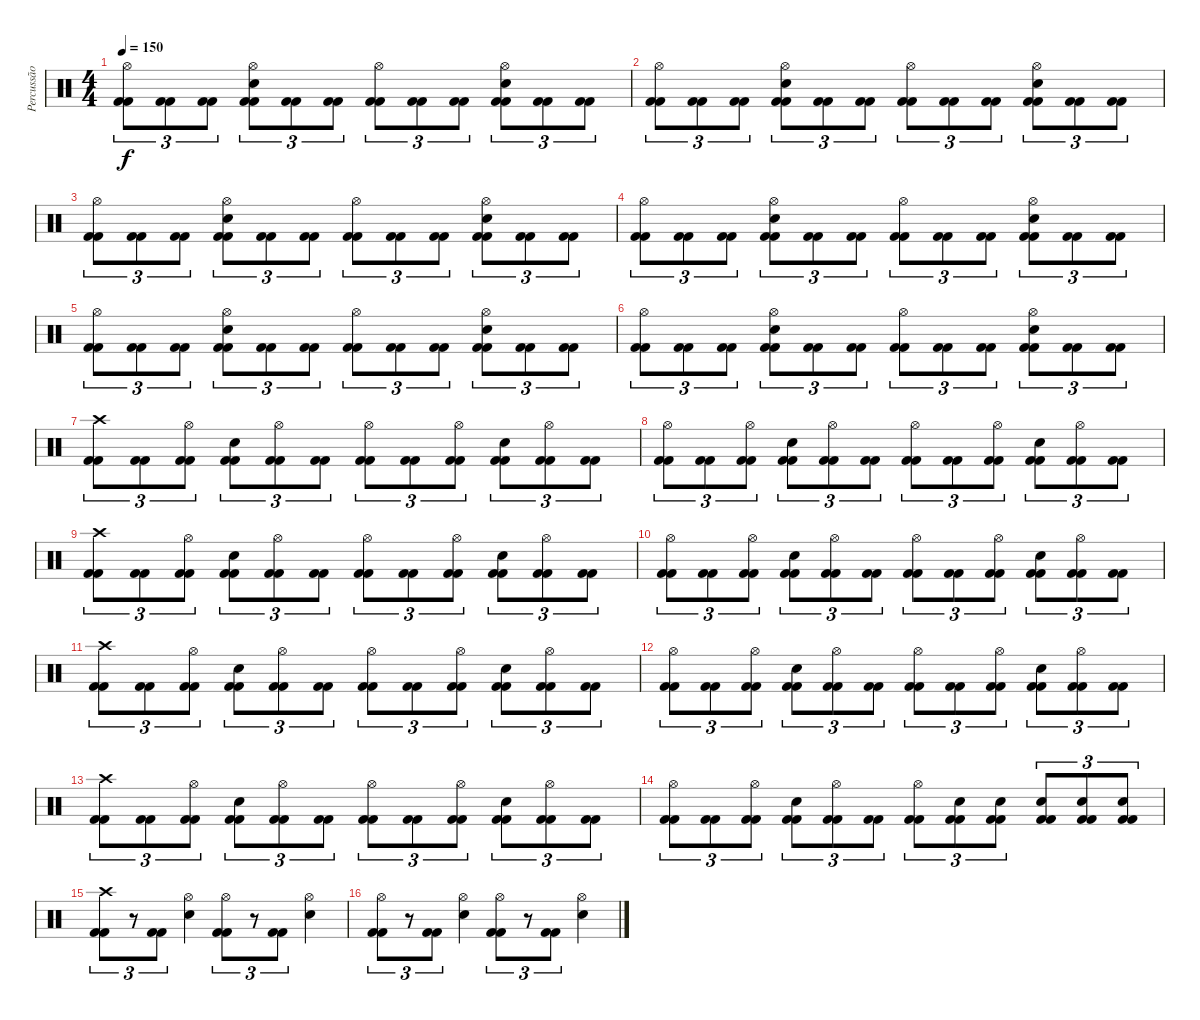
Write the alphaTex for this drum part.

\track ("Percussão" "Percussão") {instrument percussion}
\staff {score}
\articulation defaults
\ts (4 4)
\tempo 150
\clef neutral
\ks c
("Hi-Hat (open)" "Kick (hit) 2" "Kick (hit) 2").8{tu (3 2) dy f} ("Kick (hit) 2" "Kick (hit) 2").8{tu (3 2)} ("Kick (hit) 2" "Kick (hit) 2").8{tu (3 2)} ("Hi-Hat (open)" "Electric Snare (hit)" "Kick (hit) 2" "Kick (hit) 2").8{tu (3 2)} ("Kick (hit) 2" "Kick (hit) 2").8{tu (3 2)} ("Kick (hit) 2" "Kick (hit) 2").8{tu (3 2)} ("Hi-Hat (open)" "Kick (hit) 2" "Kick (hit) 2").8{tu (3 2)} ("Kick (hit) 2" "Kick (hit) 2").8{tu (3 2)} ("Kick (hit) 2" "Kick (hit) 2").8{tu (3 2)} ("Hi-Hat (open)" "Electric Snare (hit)" "Kick (hit) 2" "Kick (hit) 2").8{tu (3 2)} ("Kick (hit) 2" "Kick (hit) 2").8{tu (3 2)} ("Kick (hit) 2" "Kick (hit) 2").8{tu (3 2)} |
("Hi-Hat (open)" "Kick (hit) 2" "Kick (hit) 2").8{tu (3 2)} ("Kick (hit) 2" "Kick (hit) 2").8{tu (3 2)} ("Kick (hit) 2" "Kick (hit) 2").8{tu (3 2)} ("Hi-Hat (open)" "Electric Snare (hit)" "Kick (hit) 2" "Kick (hit) 2").8{tu (3 2)} ("Kick (hit) 2" "Kick (hit) 2").8{tu (3 2)} ("Kick (hit) 2" "Kick (hit) 2").8{tu (3 2)} ("Hi-Hat (open)" "Kick (hit) 2" "Kick (hit) 2").8{tu (3 2)} ("Kick (hit) 2" "Kick (hit) 2").8{tu (3 2)} ("Kick (hit) 2" "Kick (hit) 2").8{tu (3 2)} ("Hi-Hat (open)" "Electric Snare (hit)" "Kick (hit) 2" "Kick (hit) 2").8{tu (3 2)} ("Kick (hit) 2" "Kick (hit) 2").8{tu (3 2)} ("Kick (hit) 2" "Kick (hit) 2").8{tu (3 2)} |
("Hi-Hat (open)" "Kick (hit) 2" "Kick (hit) 2").8{tu (3 2)} ("Kick (hit) 2" "Kick (hit) 2").8{tu (3 2)} ("Kick (hit) 2" "Kick (hit) 2").8{tu (3 2)} ("Hi-Hat (open)" "Electric Snare (hit)" "Kick (hit) 2" "Kick (hit) 2").8{tu (3 2)} ("Kick (hit) 2" "Kick (hit) 2").8{tu (3 2)} ("Kick (hit) 2" "Kick (hit) 2").8{tu (3 2)} ("Hi-Hat (open)" "Kick (hit) 2" "Kick (hit) 2").8{tu (3 2)} ("Kick (hit) 2" "Kick (hit) 2").8{tu (3 2)} ("Kick (hit) 2" "Kick (hit) 2").8{tu (3 2)} ("Hi-Hat (open)" "Electric Snare (hit)" "Kick (hit) 2" "Kick (hit) 2").8{tu (3 2)} ("Kick (hit) 2" "Kick (hit) 2").8{tu (3 2)} ("Kick (hit) 2" "Kick (hit) 2").8{tu (3 2)} |
("Hi-Hat (open)" "Kick (hit) 2" "Kick (hit) 2").8{tu (3 2)} ("Kick (hit) 2" "Kick (hit) 2").8{tu (3 2)} ("Kick (hit) 2" "Kick (hit) 2").8{tu (3 2)} ("Hi-Hat (open)" "Electric Snare (hit)" "Kick (hit) 2" "Kick (hit) 2").8{tu (3 2)} ("Kick (hit) 2" "Kick (hit) 2").8{tu (3 2)} ("Kick (hit) 2" "Kick (hit) 2").8{tu (3 2)} ("Hi-Hat (open)" "Kick (hit) 2" "Kick (hit) 2").8{tu (3 2)} ("Kick (hit) 2" "Kick (hit) 2").8{tu (3 2)} ("Kick (hit) 2" "Kick (hit) 2").8{tu (3 2)} ("Hi-Hat (open)" "Electric Snare (hit)" "Kick (hit) 2" "Kick (hit) 2").8{tu (3 2)} ("Kick (hit) 2" "Kick (hit) 2").8{tu (3 2)} ("Kick (hit) 2" "Kick (hit) 2").8{tu (3 2)} |
("Hi-Hat (open)" "Kick (hit) 2" "Kick (hit) 2").8{tu (3 2)} ("Kick (hit) 2" "Kick (hit) 2").8{tu (3 2)} ("Kick (hit) 2" "Kick (hit) 2").8{tu (3 2)} ("Hi-Hat (open)" "Electric Snare (hit)" "Kick (hit) 2" "Kick (hit) 2").8{tu (3 2)} ("Kick (hit) 2" "Kick (hit) 2").8{tu (3 2)} ("Kick (hit) 2" "Kick (hit) 2").8{tu (3 2)} ("Hi-Hat (open)" "Kick (hit) 2" "Kick (hit) 2").8{tu (3 2)} ("Kick (hit) 2" "Kick (hit) 2").8{tu (3 2)} ("Kick (hit) 2" "Kick (hit) 2").8{tu (3 2)} ("Hi-Hat (open)" "Electric Snare (hit)" "Kick (hit) 2" "Kick (hit) 2").8{tu (3 2)} ("Kick (hit) 2" "Kick (hit) 2").8{tu (3 2)} ("Kick (hit) 2" "Kick (hit) 2").8{tu (3 2)} |
("Hi-Hat (open)" "Kick (hit) 2" "Kick (hit) 2").8{tu (3 2)} ("Kick (hit) 2" "Kick (hit) 2").8{tu (3 2)} ("Kick (hit) 2" "Kick (hit) 2").8{tu (3 2)} ("Hi-Hat (open)" "Electric Snare (hit)" "Kick (hit) 2" "Kick (hit) 2").8{tu (3 2)} ("Kick (hit) 2" "Kick (hit) 2").8{tu (3 2)} ("Kick (hit) 2" "Kick (hit) 2").8{tu (3 2)} ("Hi-Hat (open)" "Kick (hit) 2" "Kick (hit) 2").8{tu (3 2)} ("Kick (hit) 2" "Kick (hit) 2").8{tu (3 2)} ("Kick (hit) 2" "Kick (hit) 2").8{tu (3 2)} ("Hi-Hat (open)" "Electric Snare (hit)" "Kick (hit) 2" "Kick (hit) 2").8{tu (3 2)} ("Kick (hit) 2" "Kick (hit) 2").8{tu (3 2)} ("Kick (hit) 2" "Kick (hit) 2").8{tu (3 2)} |
("Crash high (hit)" "Kick (hit) 2" "Kick (hit) 2").8{tu (3 2)} ("Kick (hit) 2" "Kick (hit) 2").8{tu (3 2)} ("Hi-Hat (open)" "Kick (hit) 2" "Kick (hit) 2").8{tu (3 2)} ("Electric Snare (hit)" "Kick (hit) 2" "Kick (hit) 2").8{tu (3 2)} ("Hi-Hat (open)" "Kick (hit) 2" "Kick (hit) 2").8{tu (3 2)} ("Kick (hit) 2" "Kick (hit) 2").8{tu (3 2)} ("Hi-Hat (open)" "Kick (hit) 2" "Kick (hit) 2").8{tu (3 2)} ("Kick (hit) 2" "Kick (hit) 2").8{tu (3 2)} ("Hi-Hat (open)" "Kick (hit) 2" "Kick (hit) 2").8{tu (3 2)} ("Electric Snare (hit)" "Kick (hit) 2" "Kick (hit) 2").8{tu (3 2)} ("Hi-Hat (open)" "Kick (hit) 2" "Kick (hit) 2").8{tu (3 2)} ("Kick (hit) 2" "Kick (hit) 2").8{tu (3 2)} |
("Hi-Hat (open)" "Kick (hit) 2" "Kick (hit) 2").8{tu (3 2)} ("Kick (hit) 2" "Kick (hit) 2").8{tu (3 2)} ("Hi-Hat (open)" "Kick (hit) 2" "Kick (hit) 2").8{tu (3 2)} ("Electric Snare (hit)" "Kick (hit) 2" "Kick (hit) 2").8{tu (3 2)} ("Hi-Hat (open)" "Kick (hit) 2" "Kick (hit) 2").8{tu (3 2)} ("Kick (hit) 2" "Kick (hit) 2").8{tu (3 2)} ("Hi-Hat (open)" "Kick (hit) 2" "Kick (hit) 2").8{tu (3 2)} ("Kick (hit) 2" "Kick (hit) 2").8{tu (3 2)} ("Hi-Hat (open)" "Kick (hit) 2" "Kick (hit) 2").8{tu (3 2)} ("Electric Snare (hit)" "Kick (hit) 2" "Kick (hit) 2").8{tu (3 2)} ("Hi-Hat (open)" "Kick (hit) 2" "Kick (hit) 2").8{tu (3 2)} ("Kick (hit) 2" "Kick (hit) 2").8{tu (3 2)} |
("Crash high (hit)" "Kick (hit) 2" "Kick (hit) 2").8{tu (3 2)} ("Kick (hit) 2" "Kick (hit) 2").8{tu (3 2)} ("Hi-Hat (open)" "Kick (hit) 2" "Kick (hit) 2").8{tu (3 2)} ("Electric Snare (hit)" "Kick (hit) 2" "Kick (hit) 2").8{tu (3 2)} ("Hi-Hat (open)" "Kick (hit) 2" "Kick (hit) 2").8{tu (3 2)} ("Kick (hit) 2" "Kick (hit) 2").8{tu (3 2)} ("Hi-Hat (open)" "Kick (hit) 2" "Kick (hit) 2").8{tu (3 2)} ("Kick (hit) 2" "Kick (hit) 2").8{tu (3 2)} ("Hi-Hat (open)" "Kick (hit) 2" "Kick (hit) 2").8{tu (3 2)} ("Electric Snare (hit)" "Kick (hit) 2" "Kick (hit) 2").8{tu (3 2)} ("Hi-Hat (open)" "Kick (hit) 2" "Kick (hit) 2").8{tu (3 2)} ("Kick (hit) 2" "Kick (hit) 2").8{tu (3 2)} |
("Hi-Hat (open)" "Kick (hit) 2" "Kick (hit) 2").8{tu (3 2)} ("Kick (hit) 2" "Kick (hit) 2").8{tu (3 2)} ("Hi-Hat (open)" "Kick (hit) 2" "Kick (hit) 2").8{tu (3 2)} ("Electric Snare (hit)" "Kick (hit) 2" "Kick (hit) 2").8{tu (3 2)} ("Hi-Hat (open)" "Kick (hit) 2" "Kick (hit) 2").8{tu (3 2)} ("Kick (hit) 2" "Kick (hit) 2").8{tu (3 2)} ("Hi-Hat (open)" "Kick (hit) 2" "Kick (hit) 2").8{tu (3 2)} ("Kick (hit) 2" "Kick (hit) 2").8{tu (3 2)} ("Hi-Hat (open)" "Kick (hit) 2" "Kick (hit) 2").8{tu (3 2)} ("Electric Snare (hit)" "Kick (hit) 2" "Kick (hit) 2").8{tu (3 2)} ("Hi-Hat (open)" "Kick (hit) 2" "Kick (hit) 2").8{tu (3 2)} ("Kick (hit) 2" "Kick (hit) 2").8{tu (3 2)} |
("Crash high (hit)" "Kick (hit) 2" "Kick (hit) 2").8{tu (3 2)} ("Kick (hit) 2" "Kick (hit) 2").8{tu (3 2)} ("Hi-Hat (open)" "Kick (hit) 2" "Kick (hit) 2").8{tu (3 2)} ("Electric Snare (hit)" "Kick (hit) 2" "Kick (hit) 2").8{tu (3 2)} ("Hi-Hat (open)" "Kick (hit) 2" "Kick (hit) 2").8{tu (3 2)} ("Kick (hit) 2" "Kick (hit) 2").8{tu (3 2)} ("Hi-Hat (open)" "Kick (hit) 2" "Kick (hit) 2").8{tu (3 2)} ("Kick (hit) 2" "Kick (hit) 2").8{tu (3 2)} ("Hi-Hat (open)" "Kick (hit) 2" "Kick (hit) 2").8{tu (3 2)} ("Electric Snare (hit)" "Kick (hit) 2" "Kick (hit) 2").8{tu (3 2)} ("Hi-Hat (open)" "Kick (hit) 2" "Kick (hit) 2").8{tu (3 2)} ("Kick (hit) 2" "Kick (hit) 2").8{tu (3 2)} |
("Hi-Hat (open)" "Kick (hit) 2" "Kick (hit) 2").8{tu (3 2)} ("Kick (hit) 2" "Kick (hit) 2").8{tu (3 2)} ("Hi-Hat (open)" "Kick (hit) 2" "Kick (hit) 2").8{tu (3 2)} ("Electric Snare (hit)" "Kick (hit) 2" "Kick (hit) 2").8{tu (3 2)} ("Hi-Hat (open)" "Kick (hit) 2" "Kick (hit) 2").8{tu (3 2)} ("Kick (hit) 2" "Kick (hit) 2").8{tu (3 2)} ("Hi-Hat (open)" "Kick (hit) 2" "Kick (hit) 2").8{tu (3 2)} ("Kick (hit) 2" "Kick (hit) 2").8{tu (3 2)} ("Hi-Hat (open)" "Kick (hit) 2" "Kick (hit) 2").8{tu (3 2)} ("Electric Snare (hit)" "Kick (hit) 2" "Kick (hit) 2").8{tu (3 2)} ("Hi-Hat (open)" "Kick (hit) 2" "Kick (hit) 2").8{tu (3 2)} ("Kick (hit) 2" "Kick (hit) 2").8{tu (3 2)} |
("Crash high (hit)" "Kick (hit) 2" "Kick (hit) 2").8{tu (3 2)} ("Kick (hit) 2" "Kick (hit) 2").8{tu (3 2)} ("Hi-Hat (open)" "Kick (hit) 2" "Kick (hit) 2").8{tu (3 2)} ("Electric Snare (hit)" "Kick (hit) 2" "Kick (hit) 2").8{tu (3 2)} ("Hi-Hat (open)" "Kick (hit) 2" "Kick (hit) 2").8{tu (3 2)} ("Kick (hit) 2" "Kick (hit) 2").8{tu (3 2)} ("Hi-Hat (open)" "Kick (hit) 2" "Kick (hit) 2").8{tu (3 2)} ("Kick (hit) 2" "Kick (hit) 2").8{tu (3 2)} ("Hi-Hat (open)" "Kick (hit) 2" "Kick (hit) 2").8{tu (3 2)} ("Electric Snare (hit)" "Kick (hit) 2" "Kick (hit) 2").8{tu (3 2)} ("Hi-Hat (open)" "Kick (hit) 2" "Kick (hit) 2").8{tu (3 2)} ("Kick (hit) 2" "Kick (hit) 2").8{tu (3 2)} |
("Hi-Hat (open)" "Kick (hit) 2" "Kick (hit) 2").8{tu (3 2)} ("Kick (hit) 2" "Kick (hit) 2").8{tu (3 2)} ("Hi-Hat (open)" "Kick (hit) 2" "Kick (hit) 2").8{tu (3 2)} ("Electric Snare (hit)" "Kick (hit) 2" "Kick (hit) 2").8{tu (3 2)} ("Hi-Hat (open)" "Kick (hit) 2" "Kick (hit) 2").8{tu (3 2)} ("Kick (hit) 2" "Kick (hit) 2").8{tu (3 2)} ("Hi-Hat (open)" "Kick (hit) 2" "Kick (hit) 2").8{tu (3 2)} ("Electric Snare (hit)" "Kick (hit) 2" "Kick (hit) 2").8{tu (3 2)} ("Electric Snare (hit)" "Kick (hit) 2" "Kick (hit) 2").8{tu (3 2)} ("Electric Snare (hit)" "Kick (hit) 2" "Kick (hit) 2").8{tu (3 2)} ("Electric Snare (hit)" "Kick (hit) 2" "Kick (hit) 2").8{tu (3 2)} ("Electric Snare (hit)" "Kick (hit) 2" "Kick (hit) 2").8{tu (3 2)} |
("Crash high (hit)" "Kick (hit) 2" "Kick (hit) 2").8{tu (3 2)} r.8{tu (3 2)} ("Kick (hit) 2" "Kick (hit) 2").8{tu (3 2)} ("Hi-Hat (open)" "Electric Snare (hit)").4 ("Hi-Hat (open)" "Kick (hit) 2" "Kick (hit) 2").8{tu (3 2)} r.8{tu (3 2)} ("Kick (hit) 2" "Kick (hit) 2").8{tu (3 2)} ("Hi-Hat (open)" "Electric Snare (hit)").4 |
("Hi-Hat (open)" "Kick (hit) 2" "Kick (hit) 2").8{tu (3 2)} r.8{tu (3 2)} ("Kick (hit) 2" "Kick (hit) 2").8{tu (3 2)} ("Hi-Hat (open)" "Electric Snare (hit)").4 ("Hi-Hat (open)" "Kick (hit) 2" "Kick (hit) 2").8{tu (3 2)} r.8{tu (3 2)} ("Kick (hit) 2" "Kick (hit) 2").8{tu (3 2)} ("Hi-Hat (open)" "Electric Snare (hit)").4
